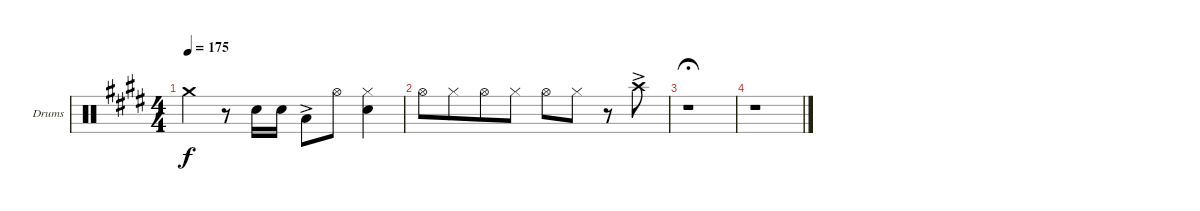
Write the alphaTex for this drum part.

\bracketExtendMode groupsimilarinstruments
\firstSystemTrackNameOrientation horizontal
\otherSystemsTrackNameOrientation horizontal
\track ("Drums" "Drums") {instrument percussion}
\staff {score}
\articulation defaults
\ts (4 4)
\tempo 175
\clef neutral
\ks e "Crash medium (hit)"{t}.4{dy f}
r.8 "Snare (hit) 2".16 "Snare (hit) 2".16 "Low Tom (hit)"{ac}.8 "Hi-Hat (open)".8 ("Hi-Hat (closed)" "Snare (hit) 2").4 |
"Hi-Hat (open)".8 "Hi-Hat (closed)".8{beam merge} "Hi-Hat (open)".8 "Hi-Hat (closed)".8 "Hi-Hat (open)".8 "Hi-Hat (closed)".8 r.8 "Crash high (hit)"{ac}.8 |
r.1{fermata (medium 0.83)} |
r.1
